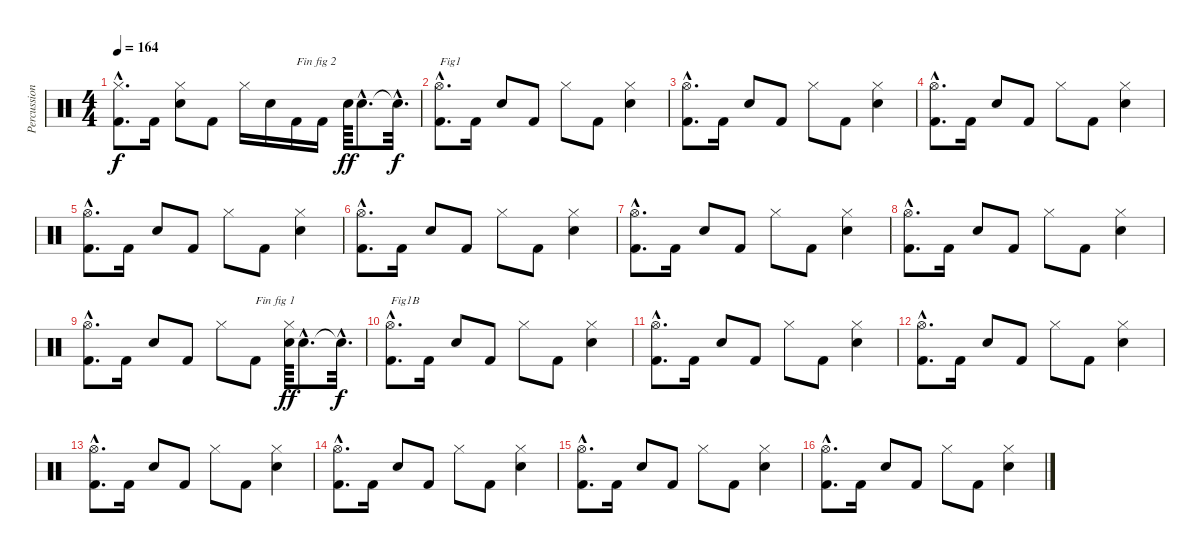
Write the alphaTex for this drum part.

\track ("Percussions" "Percussion") {instrument percussion}
\staff {score}
\articulation defaults
\ts (4 4)
\tempo 164
\clef neutral
\ks c
("Kick (hit) 2"{hac} "Hi-Hat (closed)"{hac}).8{d dy f} "Kick (hit) 2".16 ("Electric Snare (hit)" "Hi-Hat (closed)").8 "Kick (hit) 2".8 "Hi-Hat (closed)".16 "Electric Snare (hit)".16 "Kick (hit) 2".16{txt "Fin fig 2"} "Kick (hit) 2".16 "Electric Snare (hit)".64{dy ff} "Electric Snare (hit)"{hac}.8{d} "Snare (hit)"{hac t}.32{d dy f} |
("Kick (hit) 2"{hac} "Hi-Hat (open)"{hac}).8{d txt "Fig1"} "Kick (hit) 2".16 "Electric Snare (hit)".8 "Kick (hit) 2".8 "Hi-Hat (closed)".8 "Kick (hit) 2".8 ("Electric Snare (hit)" "Hi-Hat (closed)").4 |
("Kick (hit) 2"{hac} "Hi-Hat (open)"{hac}).8{d} "Kick (hit) 2".16 "Electric Snare (hit)".8 "Kick (hit) 2".8 "Hi-Hat (closed)".8 "Kick (hit) 2".8 ("Electric Snare (hit)" "Hi-Hat (closed)").4 |
("Kick (hit) 2"{hac} "Hi-Hat (open)"{hac}).8{d} "Kick (hit) 2".16 "Electric Snare (hit)".8 "Kick (hit) 2".8 "Hi-Hat (closed)".8 "Kick (hit) 2".8 ("Electric Snare (hit)" "Hi-Hat (closed)").4 |
("Kick (hit) 2"{hac} "Hi-Hat (open)"{hac}).8{d} "Kick (hit) 2".16 "Electric Snare (hit)".8 "Kick (hit) 2".8 "Hi-Hat (closed)".8 "Kick (hit) 2".8 ("Electric Snare (hit)" "Hi-Hat (closed)").4 |
("Kick (hit) 2"{hac} "Hi-Hat (open)"{hac}).8{d} "Kick (hit) 2".16 "Electric Snare (hit)".8 "Kick (hit) 2".8 "Hi-Hat (closed)".8 "Kick (hit) 2".8 ("Electric Snare (hit)" "Hi-Hat (closed)").4 |
("Kick (hit) 2"{hac} "Hi-Hat (open)"{hac}).8{d} "Kick (hit) 2".16 "Electric Snare (hit)".8 "Kick (hit) 2".8 "Hi-Hat (closed)".8 "Kick (hit) 2".8 ("Electric Snare (hit)" "Hi-Hat (closed)").4 |
("Kick (hit) 2"{hac} "Hi-Hat (open)"{hac}).8{d} "Kick (hit) 2".16 "Electric Snare (hit)".8 "Kick (hit) 2".8 "Hi-Hat (closed)".8 "Kick (hit) 2".8 ("Electric Snare (hit)" "Hi-Hat (closed)").4 |
("Kick (hit) 2"{hac} "Hi-Hat (open)"{hac}).8{d} "Kick (hit) 2".16 "Electric Snare (hit)".8 "Kick (hit) 2".8 "Hi-Hat (closed)".8 "Kick (hit) 2".8{txt "Fin fig 1"} ("Electric Snare (hit)" "Hi-Hat (closed)").64{dy ff} "Electric Snare (hit)"{hac}.8{d} "Snare (hit)"{hac t}.32{d dy f} |
("Kick (hit) 2"{hac} "Hi-Hat (open)"{hac}).8{d txt "Fig1B"} "Kick (hit) 2".16 "Electric Snare (hit)".8 "Kick (hit) 2".8 "Hi-Hat (closed)".8 "Kick (hit) 2".8 ("Electric Snare (hit)" "Hi-Hat (closed)").4 |
("Kick (hit) 2"{hac} "Hi-Hat (open)"{hac}).8{d} "Kick (hit) 2".16 "Electric Snare (hit)".8 "Kick (hit) 2".8 "Hi-Hat (closed)".8 "Kick (hit) 2".8 ("Electric Snare (hit)" "Hi-Hat (closed)").4 |
("Kick (hit) 2"{hac} "Hi-Hat (open)"{hac}).8{d} "Kick (hit) 2".16 "Electric Snare (hit)".8 "Kick (hit) 2".8 "Hi-Hat (closed)".8 "Kick (hit) 2".8 ("Electric Snare (hit)" "Hi-Hat (closed)").4 |
("Kick (hit) 2"{hac} "Hi-Hat (open)"{hac}).8{d} "Kick (hit) 2".16 "Electric Snare (hit)".8 "Kick (hit) 2".8 "Hi-Hat (closed)".8 "Kick (hit) 2".8 ("Electric Snare (hit)" "Hi-Hat (closed)").4 |
("Kick (hit) 2"{hac} "Hi-Hat (open)"{hac}).8{d} "Kick (hit) 2".16 "Electric Snare (hit)".8 "Kick (hit) 2".8 "Hi-Hat (closed)".8 "Kick (hit) 2".8 ("Electric Snare (hit)" "Hi-Hat (closed)").4 |
("Kick (hit) 2"{hac} "Hi-Hat (open)"{hac}).8{d} "Kick (hit) 2".16 "Electric Snare (hit)".8 "Kick (hit) 2".8 "Hi-Hat (closed)".8 "Kick (hit) 2".8 ("Electric Snare (hit)" "Hi-Hat (closed)").4 |
("Kick (hit) 2"{hac} "Hi-Hat (open)"{hac}).8{d} "Kick (hit) 2".16 "Electric Snare (hit)".8 "Kick (hit) 2".8 "Hi-Hat (closed)".8 "Kick (hit) 2".8 ("Electric Snare (hit)" "Hi-Hat (closed)").4
